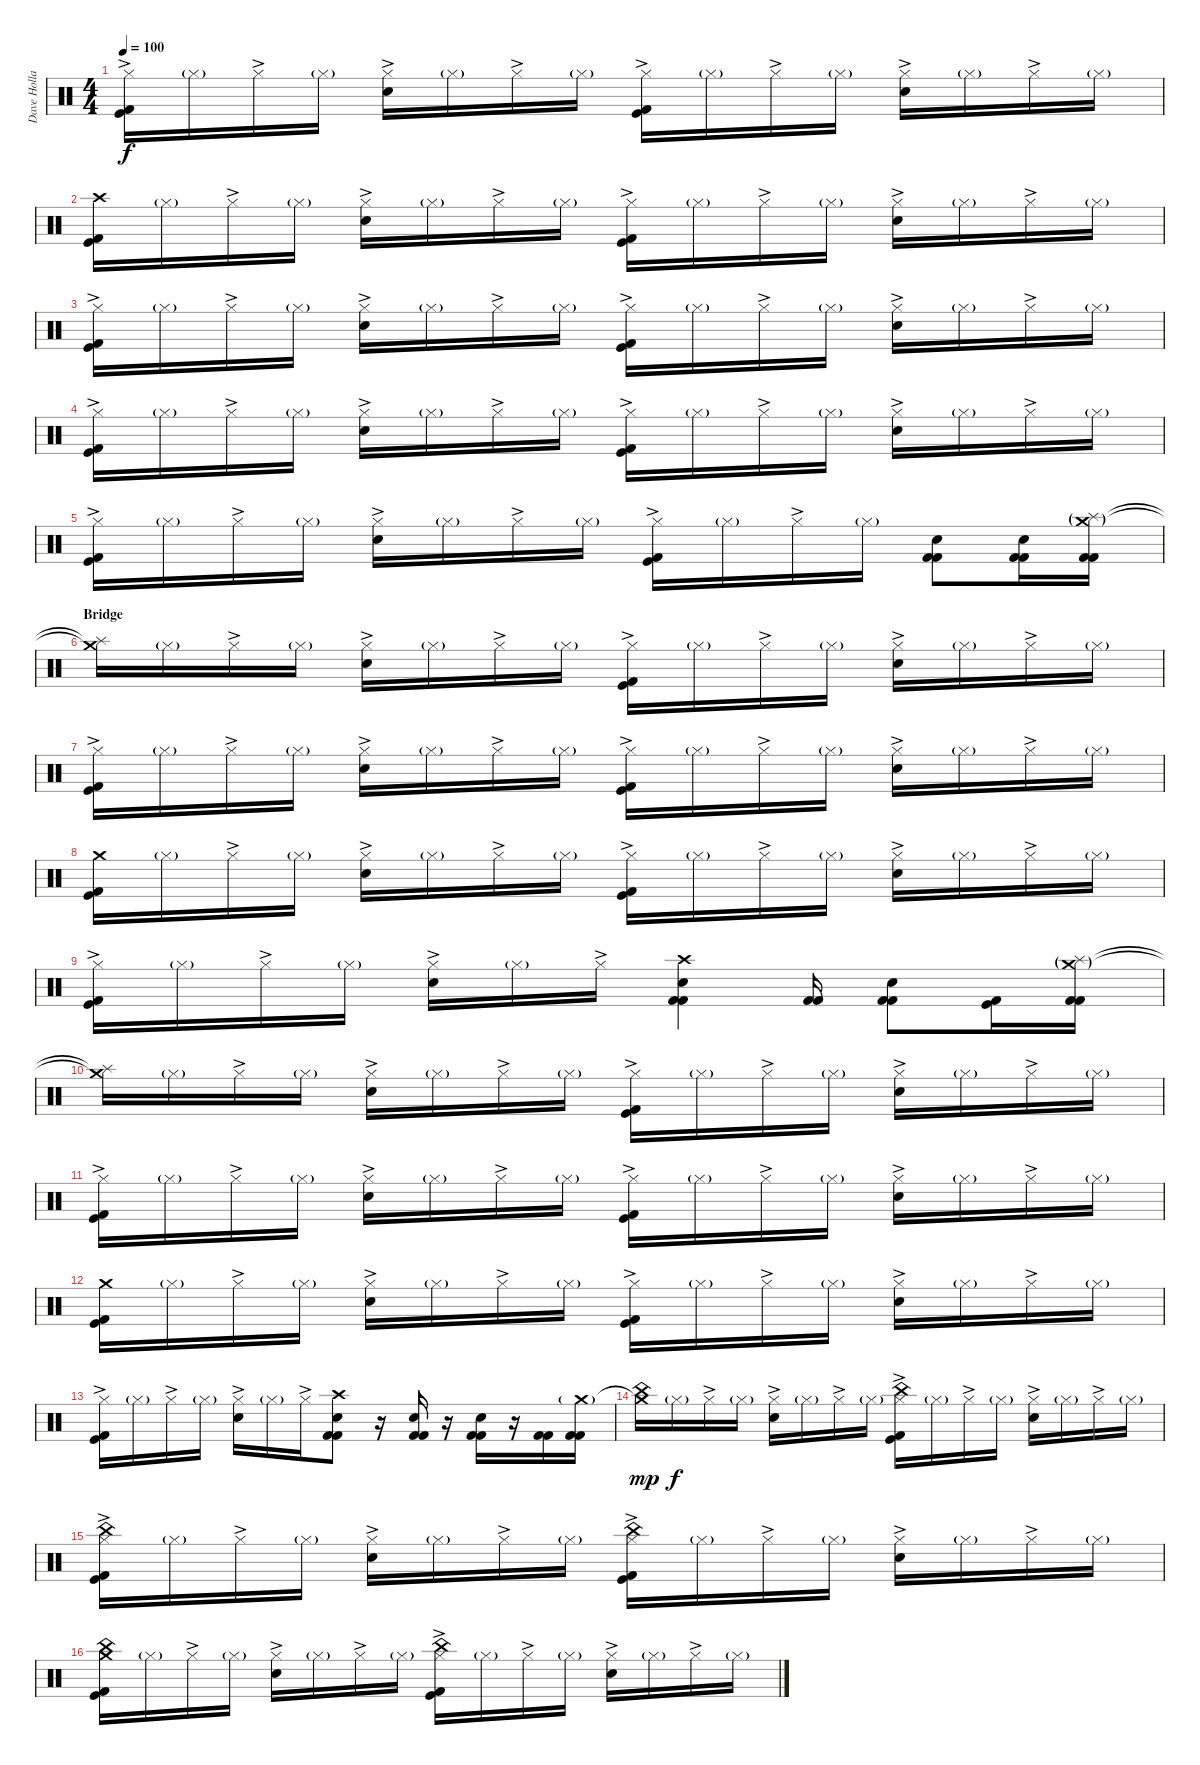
\track ("Dave Holland" "Dave Holla") {instrument percussion}
\staff {score}
\articulation defaults
\ts (4 4)
\tempo 100
\clef neutral
\ks c
("Hi-Hat (closed)"{ac} "Kick (hit)" "Kick (hit) 2").16{dy f} "Hi-Hat (closed)"{g}.16 "Hi-Hat (closed)"{ac}.16 "Hi-Hat (closed)"{g}.16 ("Hi-Hat (closed)"{ac} "Electric Snare (hit)").16 "Hi-Hat (closed)"{g}.16 "Hi-Hat (closed)"{ac}.16 "Hi-Hat (closed)"{g}.16 ("Hi-Hat (closed)"{ac} "Kick (hit)" "Kick (hit) 2").16 "Hi-Hat (closed)"{g}.16 "Hi-Hat (closed)"{ac}.16 "Hi-Hat (closed)"{g}.16 ("Hi-Hat (closed)"{ac} "Electric Snare (hit)").16 "Hi-Hat (closed)"{g}.16 "Hi-Hat (closed)"{ac}.16 "Hi-Hat (closed)"{g}.16 |
("Crash high (hit)" "Kick (hit)" "Kick (hit) 2").16 "Hi-Hat (closed)"{g}.16 "Hi-Hat (closed)"{ac}.16 "Hi-Hat (closed)"{g}.16 ("Hi-Hat (closed)"{ac} "Electric Snare (hit)").16 "Hi-Hat (closed)"{g}.16 "Hi-Hat (closed)"{ac}.16 "Hi-Hat (closed)"{g}.16 ("Hi-Hat (closed)"{ac} "Kick (hit)" "Kick (hit) 2").16 "Hi-Hat (closed)"{g}.16 "Hi-Hat (closed)"{ac}.16 "Hi-Hat (closed)"{g}.16 ("Hi-Hat (closed)"{ac} "Electric Snare (hit)").16 "Hi-Hat (closed)"{g}.16 "Hi-Hat (closed)"{ac}.16 "Hi-Hat (closed)"{g}.16 |
("Hi-Hat (closed)"{ac} "Kick (hit)" "Kick (hit) 2").16 "Hi-Hat (closed)"{g}.16 "Hi-Hat (closed)"{ac}.16 "Hi-Hat (closed)"{g}.16 ("Hi-Hat (closed)"{ac} "Electric Snare (hit)").16 "Hi-Hat (closed)"{g}.16 "Hi-Hat (closed)"{ac}.16 "Hi-Hat (closed)"{g}.16 ("Hi-Hat (closed)"{ac} "Kick (hit)" "Kick (hit) 2").16 "Hi-Hat (closed)"{g}.16 "Hi-Hat (closed)"{ac}.16 "Hi-Hat (closed)"{g}.16 ("Hi-Hat (closed)"{ac} "Electric Snare (hit)").16 "Hi-Hat (closed)"{g}.16 "Hi-Hat (closed)"{ac}.16 "Hi-Hat (closed)"{g}.16 |
("Hi-Hat (closed)"{ac} "Kick (hit)" "Kick (hit) 2").16 "Hi-Hat (closed)"{g}.16 "Hi-Hat (closed)"{ac}.16 "Hi-Hat (closed)"{g}.16 ("Hi-Hat (closed)"{ac} "Electric Snare (hit)").16 "Hi-Hat (closed)"{g}.16 "Hi-Hat (closed)"{ac}.16 "Hi-Hat (closed)"{g}.16 ("Hi-Hat (closed)"{ac} "Kick (hit)" "Kick (hit) 2").16 "Hi-Hat (closed)"{g}.16 "Hi-Hat (closed)"{ac}.16 "Hi-Hat (closed)"{g}.16 ("Hi-Hat (closed)"{ac} "Electric Snare (hit)").16 "Hi-Hat (closed)"{g}.16 "Hi-Hat (closed)"{ac}.16 "Hi-Hat (closed)"{g}.16 |
("Hi-Hat (closed)"{ac} "Kick (hit)" "Kick (hit) 2").16 "Hi-Hat (closed)"{g}.16 "Hi-Hat (closed)"{ac}.16 "Hi-Hat (closed)"{g}.16 ("Hi-Hat (closed)"{ac} "Electric Snare (hit)").16 "Hi-Hat (closed)"{g}.16 "Hi-Hat (closed)"{ac}.16 "Hi-Hat (closed)"{g}.16 ("Hi-Hat (closed)"{ac} "Kick (hit)" "Kick (hit) 2").16 "Hi-Hat (closed)"{g}.16 "Hi-Hat (closed)"{ac}.16 "Hi-Hat (closed)"{g}.16 ("Electric Snare (hit)" "Kick (hit) 2" "Kick (hit) 2").8 ("Electric Snare (hit)" "Kick (hit) 2" "Kick (hit) 2").16 ("Crash medium (hit)"{g} "Splash (hit)"{g} "Kick (hit) 2" "Kick (hit) 2").16 |
\section ("" "Bridge")
("Crash medium (hit)"{t} "Splash (hit)"{t}).16 "Hi-Hat (closed)"{g}.16 "Hi-Hat (closed)"{ac}.16 "Hi-Hat (closed)"{g}.16 ("Hi-Hat (closed)"{ac} "Electric Snare (hit)").16 "Hi-Hat (closed)"{g}.16 "Hi-Hat (closed)"{ac}.16 "Hi-Hat (closed)"{g}.16 ("Hi-Hat (closed)"{ac} "Kick (hit)" "Kick (hit) 2").16 "Hi-Hat (closed)"{g}.16 "Hi-Hat (closed)"{ac}.16 "Hi-Hat (closed)"{g}.16 ("Hi-Hat (closed)"{ac} "Electric Snare (hit)").16 "Hi-Hat (closed)"{g}.16 "Hi-Hat (closed)"{ac}.16 "Hi-Hat (closed)"{g}.16 |
("Hi-Hat (closed)"{ac} "Kick (hit)" "Kick (hit) 2").16 "Hi-Hat (closed)"{g}.16 "Hi-Hat (closed)"{ac}.16 "Hi-Hat (closed)"{g}.16 ("Hi-Hat (closed)"{ac} "Electric Snare (hit)").16 "Hi-Hat (closed)"{g}.16 "Hi-Hat (closed)"{ac}.16 "Hi-Hat (closed)"{g}.16 ("Hi-Hat (closed)"{ac} "Kick (hit)" "Kick (hit) 2").16 "Hi-Hat (closed)"{g}.16 "Hi-Hat (closed)"{ac}.16 "Hi-Hat (closed)"{g}.16 ("Hi-Hat (closed)"{ac} "Electric Snare (hit)").16 "Hi-Hat (closed)"{g}.16 "Hi-Hat (closed)"{ac}.16 "Hi-Hat (closed)"{g}.16 |
("Crash medium (hit)" "Kick (hit)" "Kick (hit) 2").16 "Hi-Hat (closed)"{g}.16 "Hi-Hat (closed)"{ac}.16 "Hi-Hat (closed)"{g}.16 ("Hi-Hat (closed)"{ac} "Electric Snare (hit)").16 "Hi-Hat (closed)"{g}.16 "Hi-Hat (closed)"{ac}.16 "Hi-Hat (closed)"{g}.16 ("Hi-Hat (closed)"{ac} "Kick (hit)" "Kick (hit) 2").16 "Hi-Hat (closed)"{g}.16 "Hi-Hat (closed)"{ac}.16 "Hi-Hat (closed)"{g}.16 ("Hi-Hat (closed)"{ac} "Electric Snare (hit)").16 "Hi-Hat (closed)"{g}.16 "Hi-Hat (closed)"{ac}.16 "Hi-Hat (closed)"{g}.16 |
("Hi-Hat (closed)"{ac} "Kick (hit)" "Kick (hit) 2").16 "Hi-Hat (closed)"{g}.16 "Hi-Hat (closed)"{ac}.16 "Hi-Hat (closed)"{g}.16 ("Hi-Hat (closed)"{ac} "Electric Snare (hit)").16 "Hi-Hat (closed)"{g}.16 "Hi-Hat (closed)"{ac}.16 ("Crash high (hit)" "Electric Snare (hit)" "Kick (hit) 2" "Kick (hit) 2").4 ("Kick (hit) 2" "Kick (hit) 2").16 ("Electric Snare (hit)" "Kick (hit) 2" "Kick (hit) 2").8 ("Kick (hit)" "Kick (hit) 2").16 ("Crash medium (hit)"{g} "Splash (hit)"{g} "Kick (hit) 2" "Kick (hit) 2").16 |
("Crash medium (hit)"{t} "Splash (hit)"{t}).16 "Hi-Hat (closed)"{g}.16 "Hi-Hat (closed)"{ac}.16 "Hi-Hat (closed)"{g}.16 ("Hi-Hat (closed)"{ac} "Electric Snare (hit)").16 "Hi-Hat (closed)"{g}.16 "Hi-Hat (closed)"{ac}.16 "Hi-Hat (closed)"{g}.16 ("Hi-Hat (closed)"{ac} "Kick (hit)" "Kick (hit) 2").16 "Hi-Hat (closed)"{g}.16 "Hi-Hat (closed)"{ac}.16 "Hi-Hat (closed)"{g}.16 ("Hi-Hat (closed)"{ac} "Electric Snare (hit)").16 "Hi-Hat (closed)"{g}.16 "Hi-Hat (closed)"{ac}.16 "Hi-Hat (closed)"{g}.16 |
("Hi-Hat (closed)"{ac} "Kick (hit)" "Kick (hit) 2").16 "Hi-Hat (closed)"{g}.16 "Hi-Hat (closed)"{ac}.16 "Hi-Hat (closed)"{g}.16 ("Hi-Hat (closed)"{ac} "Electric Snare (hit)").16 "Hi-Hat (closed)"{g}.16 "Hi-Hat (closed)"{ac}.16 "Hi-Hat (closed)"{g}.16 ("Hi-Hat (closed)"{ac} "Kick (hit)" "Kick (hit) 2").16 "Hi-Hat (closed)"{g}.16 "Hi-Hat (closed)"{ac}.16 "Hi-Hat (closed)"{g}.16 ("Hi-Hat (closed)"{ac} "Electric Snare (hit)").16 "Hi-Hat (closed)"{g}.16 "Hi-Hat (closed)"{ac}.16 "Hi-Hat (closed)"{g}.16 |
("Crash medium (hit)" "Kick (hit)" "Kick (hit) 2").16 "Hi-Hat (closed)"{g}.16 "Hi-Hat (closed)"{ac}.16 "Hi-Hat (closed)"{g}.16 ("Hi-Hat (closed)"{ac} "Electric Snare (hit)").16 "Hi-Hat (closed)"{g}.16 "Hi-Hat (closed)"{ac}.16 "Hi-Hat (closed)"{g}.16 ("Hi-Hat (closed)"{ac} "Kick (hit)" "Kick (hit) 2").16 "Hi-Hat (closed)"{g}.16 "Hi-Hat (closed)"{ac}.16 "Hi-Hat (closed)"{g}.16 ("Hi-Hat (closed)"{ac} "Electric Snare (hit)").16 "Hi-Hat (closed)"{g}.16 "Hi-Hat (closed)"{ac}.16 "Hi-Hat (closed)"{g}.16 |
("Hi-Hat (closed)"{ac} "Kick (hit)" "Kick (hit) 2").16 "Hi-Hat (closed)"{g}.16 "Hi-Hat (closed)"{ac}.16 "Hi-Hat (closed)"{g}.16 ("Hi-Hat (closed)"{ac} "Electric Snare (hit)").16 "Hi-Hat (closed)"{g}.16 "Hi-Hat (closed)"{ac}.16 ("Crash high (hit)" "Electric Snare (hit)" "Kick (hit) 2" "Kick (hit) 2").8 r.16 ("Electric Snare (hit)" "Kick (hit) 2" "Kick (hit) 2").16 r.16 ("Electric Snare (hit)" "Kick (hit) 2" "Kick (hit) 2").16 r.16 ("Kick (hit) 2" "Kick (hit) 2").16 ("Crash medium (hit)"{g} "Kick (hit) 2" "Kick (hit) 2").16 |
("Crash medium (hit)"{t} "China (hit)").16{dy mp} "Hi-Hat (closed)"{g}.16{dy f} "Hi-Hat (closed)"{ac}.16 "Hi-Hat (closed)"{g}.16 ("Hi-Hat (closed)"{ac} "Electric Snare (hit)").16 "Hi-Hat (closed)"{g}.16 "Hi-Hat (closed)"{ac}.16 "Hi-Hat (closed)"{g}.16 ("Hi-Hat (closed)"{ac} "China (hit)" "Kick (hit)" "Kick (hit) 2").16 "Hi-Hat (closed)"{g}.16 "Hi-Hat (closed)"{ac}.16 "Hi-Hat (closed)"{g}.16 ("Hi-Hat (closed)"{ac} "Electric Snare (hit)").16 "Hi-Hat (closed)"{g}.16 "Hi-Hat (closed)"{ac}.16 "Hi-Hat (closed)"{g}.16 |
("Hi-Hat (closed)"{ac} "China (hit)" "Kick (hit)" "Kick (hit) 2").16 "Hi-Hat (closed)"{g}.16 "Hi-Hat (closed)"{ac}.16 "Hi-Hat (closed)"{g}.16 ("Hi-Hat (closed)"{ac} "Electric Snare (hit)").16 "Hi-Hat (closed)"{g}.16 "Hi-Hat (closed)"{ac}.16 "Hi-Hat (closed)"{g}.16 ("Hi-Hat (closed)"{ac} "China (hit)" "Kick (hit)" "Kick (hit) 2").16 "Hi-Hat (closed)"{g}.16 "Hi-Hat (closed)"{ac}.16 "Hi-Hat (closed)"{g}.16 ("Hi-Hat (closed)"{ac} "Electric Snare (hit)").16 "Hi-Hat (closed)"{g}.16 "Hi-Hat (closed)"{ac}.16 "Hi-Hat (closed)"{g}.16 |
("Crash medium (hit)" "China (hit)" "Kick (hit)" "Kick (hit) 2").16 "Hi-Hat (closed)"{g}.16 "Hi-Hat (closed)"{ac}.16 "Hi-Hat (closed)"{g}.16 ("Hi-Hat (closed)"{ac} "Electric Snare (hit)").16 "Hi-Hat (closed)"{g}.16 "Hi-Hat (closed)"{ac}.16 "Hi-Hat (closed)"{g}.16 ("Hi-Hat (closed)"{ac} "China (hit)" "Kick (hit)" "Kick (hit) 2").16 "Hi-Hat (closed)"{g}.16 "Hi-Hat (closed)"{ac}.16 "Hi-Hat (closed)"{g}.16 ("Hi-Hat (closed)"{ac} "Electric Snare (hit)").16 "Hi-Hat (closed)"{g}.16 "Hi-Hat (closed)"{ac}.16 "Hi-Hat (closed)"{g}.16
